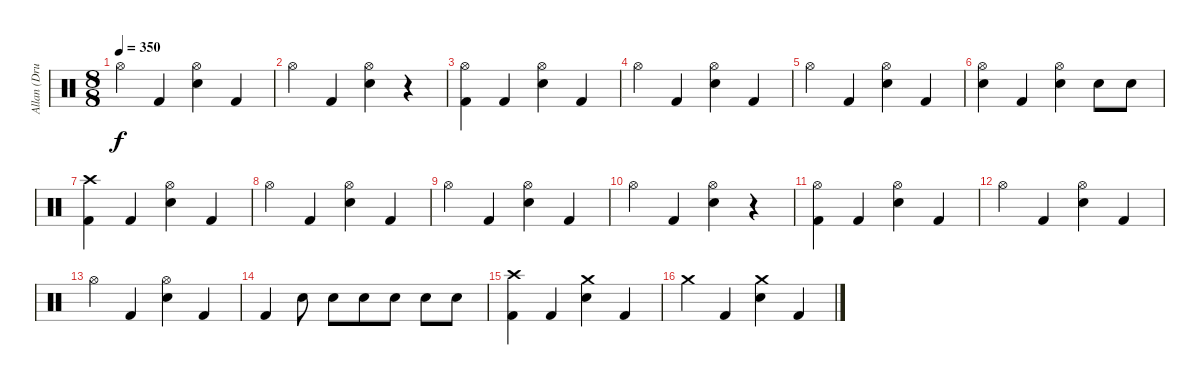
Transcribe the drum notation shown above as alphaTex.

\track ("Allan (Drums)" "Allan (Dru") {instrument percussion}
\staff {score}
\articulation defaults
\ts (8 8)
\tempo 350
\clef neutral
\ks c "Hi-Hat (open)".4{dy f} "Kick (hit) 2".4
("Hi-Hat (open)" "Snare (hit) 2").4 "Kick (hit) 2".4 |
"Hi-Hat (open)".4 "Kick (hit) 2".4 ("Hi-Hat (open)" "Snare (hit) 2").4 r.4 |
("Hi-Hat (open)" "Kick (hit) 2").4 "Kick (hit) 2".4 ("Hi-Hat (open)" "Snare (hit) 2").4 "Kick (hit) 2".4 |
"Hi-Hat (open)".4 "Kick (hit) 2".4 ("Hi-Hat (open)" "Snare (hit) 2").4 "Kick (hit) 2".4 |
"Hi-Hat (open)".4 "Kick (hit) 2".4 ("Hi-Hat (open)" "Snare (hit) 2").4 "Kick (hit) 2".4 |
("Hi-Hat (open)" "Snare (hit) 2").4 "Kick (hit) 2".4 ("Hi-Hat (open)" "Snare (hit) 2").4 "Snare (hit) 2".8 "Snare (hit) 2".8 |
("Crash high (hit)" "Kick (hit) 2").4 "Kick (hit) 2".4 ("Hi-Hat (open)" "Snare (hit) 2").4 "Kick (hit) 2".4 |
"Hi-Hat (open)".4 "Kick (hit) 2".4 ("Hi-Hat (open)" "Snare (hit) 2").4 "Kick (hit) 2".4 |
"Hi-Hat (open)".4 "Kick (hit) 2".4 ("Hi-Hat (open)" "Snare (hit) 2").4 "Kick (hit) 2".4 |
"Hi-Hat (open)".4 "Kick (hit) 2".4 ("Hi-Hat (open)" "Snare (hit) 2").4 r.4 |
("Hi-Hat (open)" "Kick (hit) 2").4 "Kick (hit) 2".4 ("Hi-Hat (open)" "Snare (hit) 2").4 "Kick (hit) 2".4 |
"Hi-Hat (open)".4 "Kick (hit) 2".4 ("Hi-Hat (open)" "Snare (hit) 2").4 "Kick (hit) 2".4 |
"Hi-Hat (open)".4 "Kick (hit) 2".4 ("Hi-Hat (open)" "Snare (hit) 2").4 "Kick (hit) 2".4 |
"Kick (hit) 2".4 "Snare (hit) 2".8 "Snare (hit) 2".8 "Snare (hit) 2".8 "Snare (hit) 2".8 "Snare (hit) 2".8 "Snare (hit) 2".8 |
("Crash high (hit)" "Kick (hit) 2").4 "Kick (hit) 2".4 ("Crash medium (hit)" "Snare (hit) 2").4 "Kick (hit) 2".4 |
"Crash medium (hit)".4 "Kick (hit) 2".4 ("Crash medium (hit)" "Snare (hit) 2").4 "Kick (hit) 2".4
